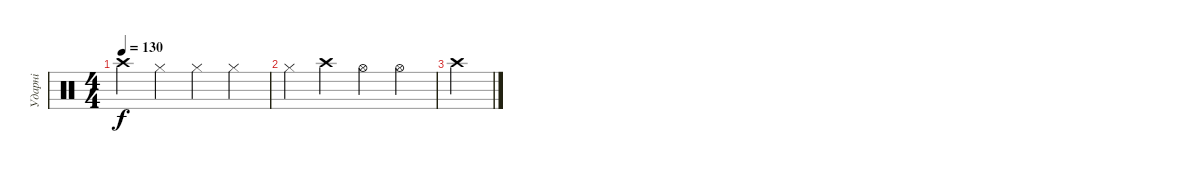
\track ("Ударні" "Ударні") {instrument percussion}
\staff {score}
\articulation defaults
\ts (4 4)
\tempo 130
\clef neutral
\ks c "Crash high (hit)".4{dy f} "Hi-Hat (closed)".4 "Hi-Hat (closed)".4 "Hi-Hat (closed)".4
|
"Hi-Hat (closed)".4 "Crash high (hit)".4 "Hi-Hat (open)".4 "Hi-Hat (open)".4 |
"Crash high (hit)".4
